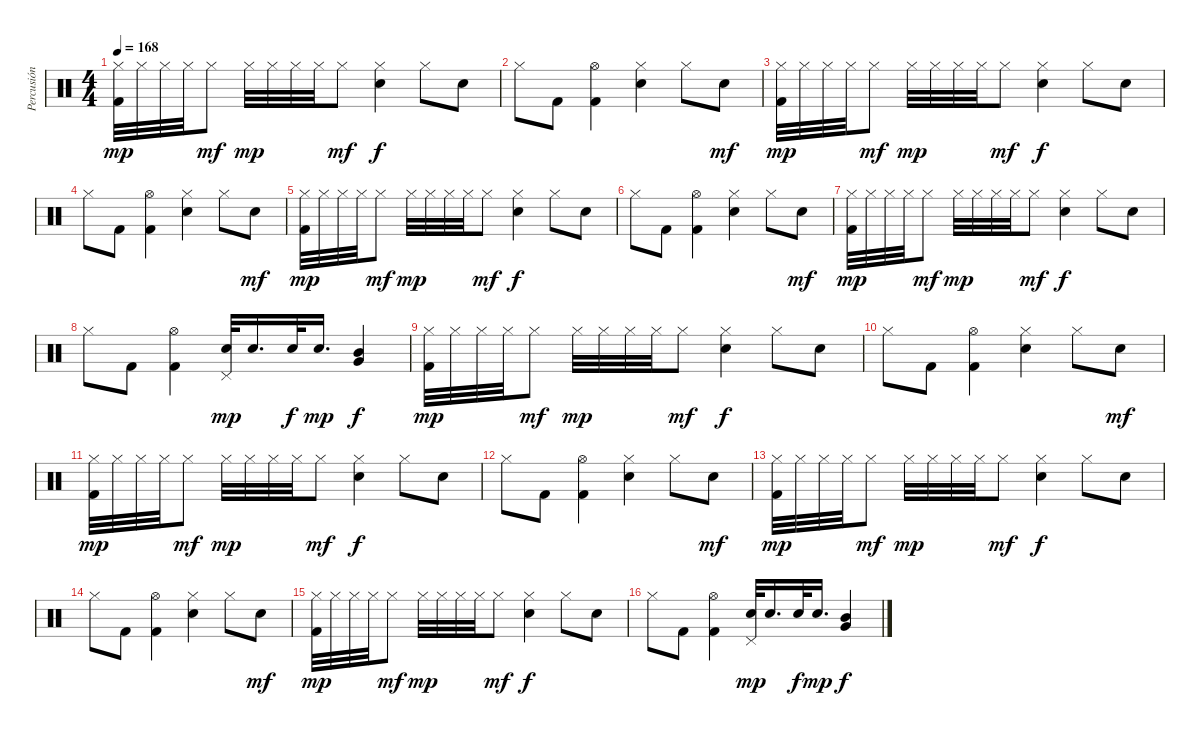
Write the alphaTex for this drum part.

\track ("Percusión" "Percusión") {instrument percussion}
\staff {score}
\articulation defaults
\ts (4 4)
\tempo 168
\clef neutral
\ks c
("Hi-Hat (closed)" "Kick (hit) 2").32{dy mp} "Hi-Hat (closed)".32 "Hi-Hat (closed)".32 "Hi-Hat (closed)".32 "Hi-Hat (closed)".8{dy mf} "Hi-Hat (closed)".32{dy mp} "Hi-Hat (closed)".32 "Hi-Hat (closed)".32 "Hi-Hat (closed)".32 "Hi-Hat (closed)".8{dy mf} ("Hi-Hat (closed)" "Electric Snare (hit)").4{dy f} "Hi-Hat (closed)".8 "Electric Snare (hit)".8 |
"Hi-Hat (closed)".8 "Kick (hit) 2".8 ("Hi-Hat (open)" "Kick (hit) 2").4 ("Hi-Hat (closed)" "Electric Snare (hit)").4 "Hi-Hat (closed)".8 "Electric Snare (hit)".8{dy mf} |
("Hi-Hat (closed)" "Kick (hit) 2").32{dy mp} "Hi-Hat (closed)".32 "Hi-Hat (closed)".32 "Hi-Hat (closed)".32 "Hi-Hat (closed)".8{dy mf} "Hi-Hat (closed)".32{dy mp} "Hi-Hat (closed)".32 "Hi-Hat (closed)".32 "Hi-Hat (closed)".32 "Hi-Hat (closed)".8{dy mf} ("Hi-Hat (closed)" "Electric Snare (hit)").4{dy f} "Hi-Hat (closed)".8 "Electric Snare (hit)".8 |
"Hi-Hat (closed)".8 "Kick (hit) 2".8 ("Hi-Hat (open)" "Kick (hit) 2").4 ("Hi-Hat (closed)" "Electric Snare (hit)").4 "Hi-Hat (closed)".8 "Electric Snare (hit)".8{dy mf} |
("Hi-Hat (closed)" "Kick (hit) 2").32{dy mp} "Hi-Hat (closed)".32 "Hi-Hat (closed)".32 "Hi-Hat (closed)".32 "Hi-Hat (closed)".8{dy mf} "Hi-Hat (closed)".32{dy mp} "Hi-Hat (closed)".32 "Hi-Hat (closed)".32 "Hi-Hat (closed)".32 "Hi-Hat (closed)".8{dy mf} ("Hi-Hat (closed)" "Electric Snare (hit)").4{dy f} "Hi-Hat (closed)".8 "Electric Snare (hit)".8 |
"Hi-Hat (closed)".8 "Kick (hit) 2".8 ("Hi-Hat (open)" "Kick (hit) 2").4 ("Hi-Hat (closed)" "Electric Snare (hit)").4 "Hi-Hat (closed)".8 "Electric Snare (hit)".8{dy mf} |
("Hi-Hat (closed)" "Kick (hit) 2").32{dy mp} "Hi-Hat (closed)".32 "Hi-Hat (closed)".32 "Hi-Hat (closed)".32 "Hi-Hat (closed)".8{dy mf} "Hi-Hat (closed)".32{dy mp} "Hi-Hat (closed)".32 "Hi-Hat (closed)".32 "Hi-Hat (closed)".32 "Hi-Hat (closed)".8{dy mf} ("Hi-Hat (closed)" "Electric Snare (hit)").4{dy f} "Hi-Hat (closed)".8 "Electric Snare (hit)".8 |
"Hi-Hat (closed)".8 "Kick (hit) 2".8 ("Hi-Hat (open)" "Kick (hit) 2").4 ("Pedal Hi-Hat (hit)" "Electric Snare (hit)").32{dy mp} "Electric Snare (hit)".16{d} "Electric Snare (hit)".32{dy f} "Electric Snare (hit)".16{d dy mp} ("Mid Tom (hit)" "Very Low Tom (hit)").4{dy f} |
("Hi-Hat (closed)" "Kick (hit) 2").32{dy mp} "Hi-Hat (closed)".32 "Hi-Hat (closed)".32 "Hi-Hat (closed)".32 "Hi-Hat (closed)".8{dy mf} "Hi-Hat (closed)".32{dy mp} "Hi-Hat (closed)".32 "Hi-Hat (closed)".32 "Hi-Hat (closed)".32 "Hi-Hat (closed)".8{dy mf} ("Hi-Hat (closed)" "Electric Snare (hit)").4{dy f} "Hi-Hat (closed)".8 "Electric Snare (hit)".8 |
"Hi-Hat (closed)".8 "Kick (hit) 2".8 ("Hi-Hat (open)" "Kick (hit) 2").4 ("Hi-Hat (closed)" "Electric Snare (hit)").4 "Hi-Hat (closed)".8 "Electric Snare (hit)".8{dy mf} |
("Hi-Hat (closed)" "Kick (hit) 2").32{dy mp} "Hi-Hat (closed)".32 "Hi-Hat (closed)".32 "Hi-Hat (closed)".32 "Hi-Hat (closed)".8{dy mf} "Hi-Hat (closed)".32{dy mp} "Hi-Hat (closed)".32 "Hi-Hat (closed)".32 "Hi-Hat (closed)".32 "Hi-Hat (closed)".8{dy mf} ("Hi-Hat (closed)" "Electric Snare (hit)").4{dy f} "Hi-Hat (closed)".8 "Electric Snare (hit)".8 |
"Hi-Hat (closed)".8 "Kick (hit) 2".8 ("Hi-Hat (open)" "Kick (hit) 2").4 ("Hi-Hat (closed)" "Electric Snare (hit)").4 "Hi-Hat (closed)".8 "Electric Snare (hit)".8{dy mf} |
("Hi-Hat (closed)" "Kick (hit) 2").32{dy mp} "Hi-Hat (closed)".32 "Hi-Hat (closed)".32 "Hi-Hat (closed)".32 "Hi-Hat (closed)".8{dy mf} "Hi-Hat (closed)".32{dy mp} "Hi-Hat (closed)".32 "Hi-Hat (closed)".32 "Hi-Hat (closed)".32 "Hi-Hat (closed)".8{dy mf} ("Hi-Hat (closed)" "Electric Snare (hit)").4{dy f} "Hi-Hat (closed)".8 "Electric Snare (hit)".8 |
"Hi-Hat (closed)".8 "Kick (hit) 2".8 ("Hi-Hat (open)" "Kick (hit) 2").4 ("Hi-Hat (closed)" "Electric Snare (hit)").4 "Hi-Hat (closed)".8 "Electric Snare (hit)".8{dy mf} |
("Hi-Hat (closed)" "Kick (hit) 2").32{dy mp} "Hi-Hat (closed)".32 "Hi-Hat (closed)".32 "Hi-Hat (closed)".32 "Hi-Hat (closed)".8{dy mf} "Hi-Hat (closed)".32{dy mp} "Hi-Hat (closed)".32 "Hi-Hat (closed)".32 "Hi-Hat (closed)".32 "Hi-Hat (closed)".8{dy mf} ("Hi-Hat (closed)" "Electric Snare (hit)").4{dy f} "Hi-Hat (closed)".8 "Electric Snare (hit)".8 |
"Hi-Hat (closed)".8 "Kick (hit) 2".8 ("Hi-Hat (open)" "Kick (hit) 2").4 ("Pedal Hi-Hat (hit)" "Electric Snare (hit)").32{dy mp} "Electric Snare (hit)".16{d} "Electric Snare (hit)".32{dy f} "Electric Snare (hit)".16{d dy mp} ("Mid Tom (hit)" "Very Low Tom (hit)").4{dy f}
